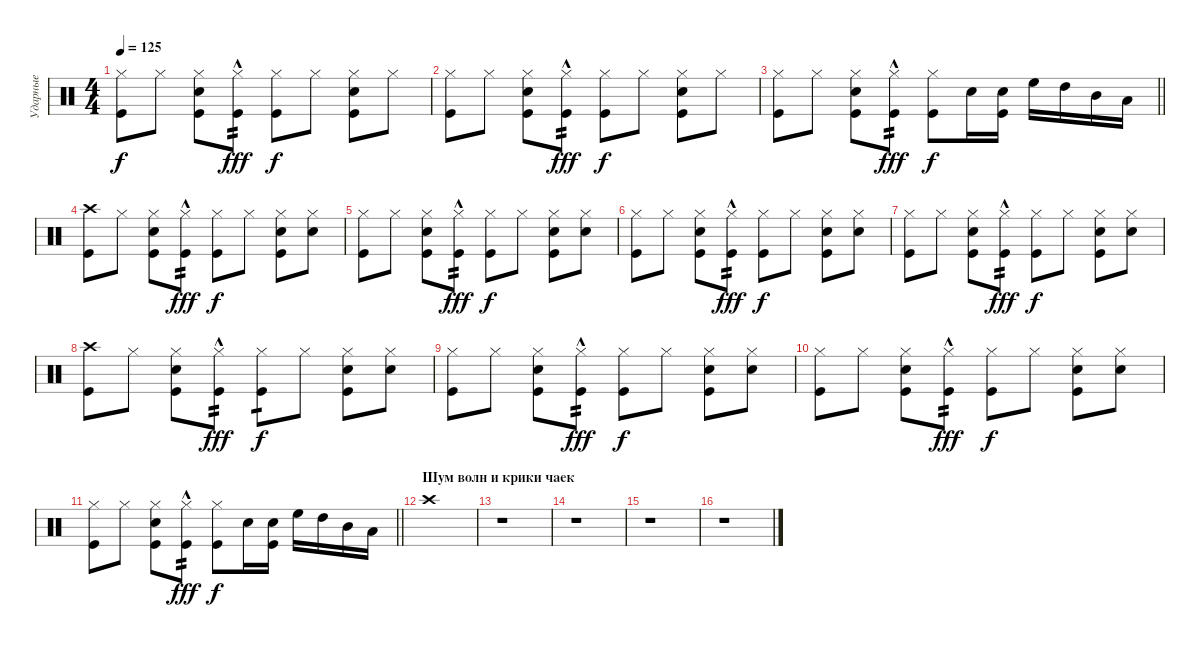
\track ("Ударные" "Ударные") {instrument percussion}
\staff {score}
\articulation defaults
\ts (4 4)
\tempo 125
\clef neutral
\ks c
("Hi-Hat (closed)" "Kick (hit)").8{dy f} "Hi-Hat (closed)".8 ("Hi-Hat (closed)" "Snare (hit) 2" "Kick (hit)").8 ("Hi-Hat (closed)" "Kick (hit)"{hac}).8{tp 2 dy fff} ("Hi-Hat (closed)" "Kick (hit)").8{dy f} "Hi-Hat (closed)".8 ("Hi-Hat (closed)" "Snare (hit) 2" "Kick (hit)").8 "Hi-Hat (closed)".8 |
("Hi-Hat (closed)" "Kick (hit)").8 "Hi-Hat (closed)".8 ("Hi-Hat (closed)" "Snare (hit) 2" "Kick (hit)").8 ("Hi-Hat (closed)" "Kick (hit)"{hac}).8{tp 2 dy fff} ("Hi-Hat (closed)" "Kick (hit)").8{dy f} "Hi-Hat (closed)".8 ("Hi-Hat (closed)" "Snare (hit) 2" "Kick (hit)").8 "Hi-Hat (closed)".8 |
\barLineRight lightlight
("Hi-Hat (closed)" "Kick (hit)").8 "Hi-Hat (closed)".8 ("Hi-Hat (closed)" "Snare (hit) 2" "Kick (hit)").8 ("Hi-Hat (closed)" "Kick (hit)"{hac}).8{tp 2 dy fff} ("Hi-Hat (closed)" "Kick (hit)").8{dy f} "Snare (hit) 2".16 ("Snare (hit) 2" "Kick (hit)").16 "High Floor Tom (hit)".16 "High Tom (hit)".16 "Mid Tom (hit)".16 "Low Tom (hit)".16 |
\section ("" "")
("Crash high (hit)" "Kick (hit)").8 "Hi-Hat (closed)".8 ("Hi-Hat (closed)" "Snare (hit) 2" "Kick (hit)").8 ("Hi-Hat (closed)" "Kick (hit)"{hac}).8{tp 2 dy fff} ("Hi-Hat (closed)" "Kick (hit)").8{dy f} "Hi-Hat (closed)".8 ("Hi-Hat (closed)" "Snare (hit) 2" "Kick (hit)").8 ("Hi-Hat (closed)" "Snare (hit) 2").8 |
("Hi-Hat (closed)" "Kick (hit)").8 "Hi-Hat (closed)".8 ("Hi-Hat (closed)" "Snare (hit) 2" "Kick (hit)").8 ("Hi-Hat (closed)" "Kick (hit)"{hac}).8{tp 2 dy fff} ("Hi-Hat (closed)" "Kick (hit)").8{dy f} "Hi-Hat (closed)".8 ("Hi-Hat (closed)" "Snare (hit) 2" "Kick (hit)").8 ("Hi-Hat (closed)" "Snare (hit) 2").8 |
("Hi-Hat (closed)" "Kick (hit)").8 "Hi-Hat (closed)".8 ("Hi-Hat (closed)" "Snare (hit) 2" "Kick (hit)").8 ("Hi-Hat (closed)" "Kick (hit)"{hac}).8{tp 2 dy fff} ("Hi-Hat (closed)" "Kick (hit)").8{dy f} "Hi-Hat (closed)".8 ("Hi-Hat (closed)" "Snare (hit) 2" "Kick (hit)").8 ("Hi-Hat (closed)" "Snare (hit) 2").8 |
("Hi-Hat (closed)" "Kick (hit)").8 "Hi-Hat (closed)".8 ("Hi-Hat (closed)" "Snare (hit) 2" "Kick (hit)").8 ("Hi-Hat (closed)" "Kick (hit)"{hac}).8{tp 2 dy fff} ("Hi-Hat (closed)" "Kick (hit)").8{dy f} "Hi-Hat (closed)".8 ("Hi-Hat (closed)" "Snare (hit) 2" "Kick (hit)").8 ("Hi-Hat (closed)" "Snare (hit) 2").8 |
("Crash high (hit)" "Kick (hit)").8 "Hi-Hat (closed)".8 ("Hi-Hat (closed)" "Snare (hit) 2" "Kick (hit)").8 ("Hi-Hat (closed)" "Kick (hit)"{hac}).8{tp 2 dy fff} ("Hi-Hat (closed)" "Kick (hit)").8{tp 1 dy f} "Hi-Hat (closed)".8 ("Hi-Hat (closed)" "Snare (hit) 2" "Kick (hit)").8 ("Hi-Hat (closed)" "Snare (hit) 2").8 |
("Hi-Hat (closed)" "Kick (hit)").8 "Hi-Hat (closed)".8 ("Hi-Hat (closed)" "Snare (hit) 2" "Kick (hit)").8 ("Hi-Hat (closed)" "Kick (hit)"{hac}).8{tp 2 dy fff} ("Hi-Hat (closed)" "Kick (hit)").8{dy f} "Hi-Hat (closed)".8 ("Hi-Hat (closed)" "Snare (hit) 2" "Kick (hit)").8 ("Hi-Hat (closed)" "Snare (hit) 2").8 |
("Hi-Hat (closed)" "Kick (hit)").8 "Hi-Hat (closed)".8 ("Hi-Hat (closed)" "Snare (hit) 2" "Kick (hit)").8 ("Hi-Hat (closed)" "Kick (hit)"{hac}).8{tp 2 dy fff} ("Hi-Hat (closed)" "Kick (hit)").8{dy f} "Hi-Hat (closed)".8 ("Hi-Hat (closed)" "Snare (hit) 2" "Kick (hit)").8 ("Hi-Hat (closed)" "Snare (hit) 2").8 |
\barLineRight lightlight
("Hi-Hat (closed)" "Kick (hit)").8 "Hi-Hat (closed)".8 ("Hi-Hat (closed)" "Snare (hit) 2" "Kick (hit)").8 ("Hi-Hat (closed)" "Kick (hit)"{hac}).8{tp 2 dy fff} ("Hi-Hat (closed)" "Kick (hit)").8{dy f} "Snare (hit) 2".16 ("Snare (hit) 2" "Kick (hit)").16 "High Floor Tom (hit)".16 "High Tom (hit)".16 "Mid Tom (hit)".16 "Low Tom (hit)".16 |
\section ("" "Шум волн и крики чаек")
"Crash high (hit)".1 |
r.1 |
r.1 |
r.1 |
r.1
